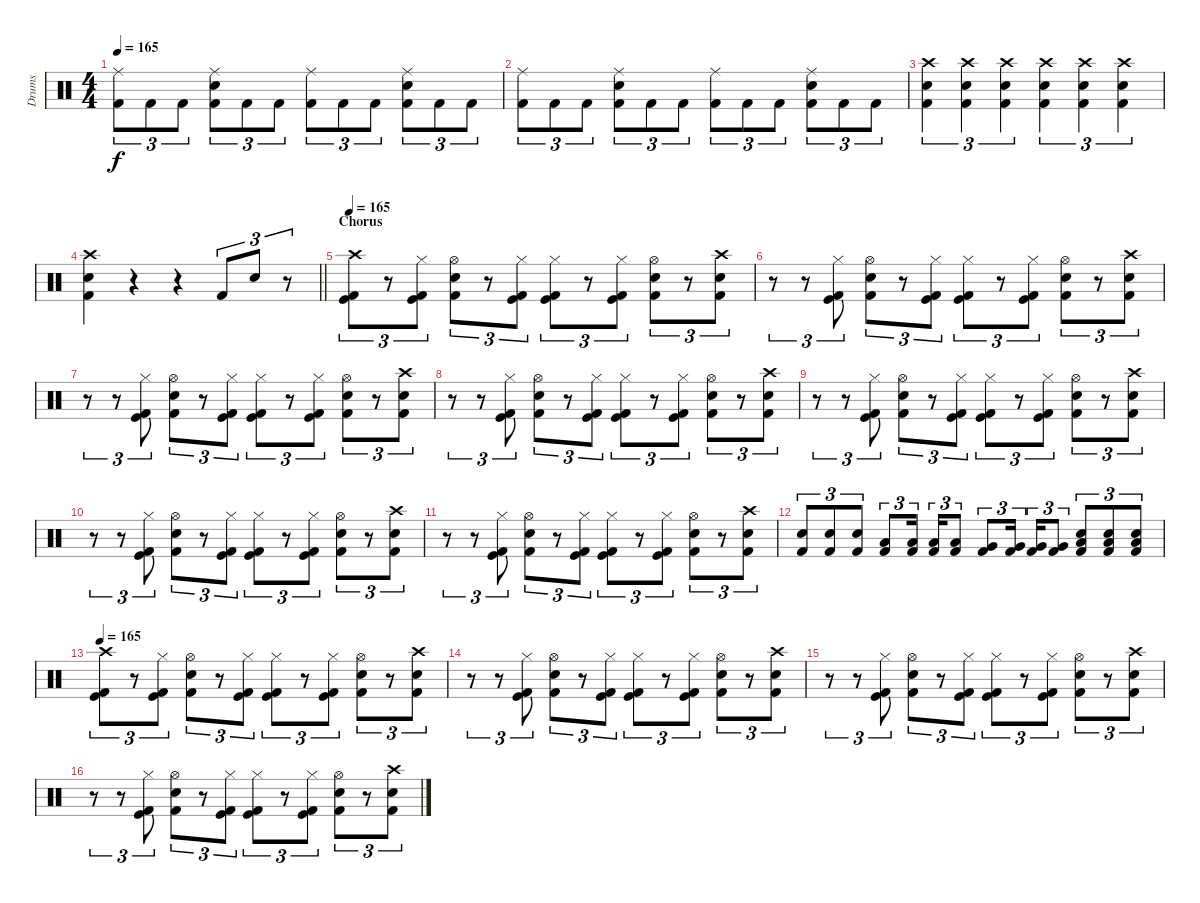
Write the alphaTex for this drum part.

\track ("Drums" "Drums") {instrument percussion}
\staff {score}
\articulation defaults
\ts (4 4)
\tempo 165
\clef neutral
\ks c
("Ride (middle)" "Kick (hit) 2").8{tu (3 2) dy f} "Kick (hit) 2".8{tu (3 2)} "Kick (hit) 2".8{tu (3 2)} ("Ride (middle)" "Snare (hit) 2" "Kick (hit) 2").8{tu (3 2)} "Kick (hit) 2".8{tu (3 2)} "Kick (hit) 2".8{tu (3 2)} ("Ride (middle)" "Kick (hit) 2").8{tu (3 2)} "Kick (hit) 2".8{tu (3 2)} "Kick (hit) 2".8{tu (3 2)} ("Ride (middle)" "Snare (hit) 2" "Kick (hit) 2").8{tu (3 2)} "Kick (hit) 2".8{tu (3 2)} "Kick (hit) 2".8{tu (3 2)} |
("Ride (middle)" "Kick (hit) 2").8{tu (3 2)} "Kick (hit) 2".8{tu (3 2)} "Kick (hit) 2".8{tu (3 2)} ("Ride (middle)" "Snare (hit) 2" "Kick (hit) 2").8{tu (3 2)} "Kick (hit) 2".8{tu (3 2)} "Kick (hit) 2".8{tu (3 2)} ("Ride (middle)" "Kick (hit) 2").8{tu (3 2)} "Kick (hit) 2".8{tu (3 2)} "Kick (hit) 2".8{tu (3 2)} ("Ride (middle)" "Snare (hit) 2" "Kick (hit) 2").8{tu (3 2)} "Kick (hit) 2".8{tu (3 2)} "Kick (hit) 2".8{tu (3 2)} |
("Snare (hit) 2" "Kick (hit) 2" "Crash high (hit)").4{tu (3 2)} ("Snare (hit) 2" "Kick (hit) 2" "Crash high (hit)").4{tu (3 2)} ("Snare (hit) 2" "Kick (hit) 2" "Crash high (hit)").4{tu (3 2)} ("Snare (hit) 2" "Kick (hit) 2" "Crash high (hit)").4{tu (3 2)} ("Snare (hit) 2" "Kick (hit) 2" "Crash high (hit)").4{tu (3 2)} ("Snare (hit) 2" "Kick (hit) 2" "Crash high (hit)").4{tu (3 2)} |
\barLineRight lightlight
("Snare (hit) 2" "Kick (hit) 2" "Crash high (hit)").4 r.4 r.4 "Kick (hit) 2".8{tu (3 2)} "Snare (hit) 2".8{tu (3 2)} r.8{tu (3 2)} |
\section ("" "Chorus")
\tempo 165
("Kick (hit)" "Kick (hit) 2" "Crash high (hit)").8{tu (3 2)} r.8{tu (3 2)} ("Kick (hit)" "Kick (hit) 2" "Hi-Hat (closed)").8{tu (3 2)} ("Snare (hit) 2" "Kick (hit) 2" "Hi-Hat (open)").8{tu (3 2)} r.8{tu (3 2)} ("Kick (hit)" "Kick (hit) 2" "Hi-Hat (closed)").8{tu (3 2)} ("Kick (hit)" "Kick (hit) 2" "Hi-Hat (closed)").8{tu (3 2)} r.8{tu (3 2)} ("Kick (hit)" "Kick (hit) 2" "Hi-Hat (closed)").8{tu (3 2)} ("Snare (hit) 2" "Kick (hit) 2" "Hi-Hat (open)").8{tu (3 2)} r.8{tu (3 2)} ("Snare (hit) 2" "Kick (hit) 2" "Crash high (hit)").8{tu (3 2)} |
r.8{tu (3 2)} r.8{tu (3 2)} ("Kick (hit)" "Kick (hit) 2" "Hi-Hat (closed)").8{tu (3 2)} ("Snare (hit) 2" "Kick (hit) 2" "Hi-Hat (open)").8{tu (3 2)} r.8{tu (3 2)} ("Kick (hit)" "Kick (hit) 2" "Hi-Hat (closed)").8{tu (3 2)} ("Kick (hit)" "Kick (hit) 2" "Hi-Hat (closed)").8{tu (3 2)} r.8{tu (3 2)} ("Kick (hit)" "Kick (hit) 2" "Hi-Hat (closed)").8{tu (3 2)} ("Snare (hit) 2" "Kick (hit) 2" "Hi-Hat (open)").8{tu (3 2)} r.8{tu (3 2)} ("Snare (hit) 2" "Kick (hit) 2" "Crash high (hit)").8{tu (3 2)} |
r.8{tu (3 2)} r.8{tu (3 2)} ("Kick (hit)" "Kick (hit) 2" "Hi-Hat (closed)").8{tu (3 2)} ("Snare (hit) 2" "Kick (hit) 2" "Hi-Hat (open)").8{tu (3 2)} r.8{tu (3 2)} ("Kick (hit)" "Kick (hit) 2" "Hi-Hat (closed)").8{tu (3 2)} ("Kick (hit)" "Kick (hit) 2" "Hi-Hat (closed)").8{tu (3 2)} r.8{tu (3 2)} ("Kick (hit)" "Kick (hit) 2" "Hi-Hat (closed)").8{tu (3 2)} ("Snare (hit) 2" "Kick (hit) 2" "Hi-Hat (open)").8{tu (3 2)} r.8{tu (3 2)} ("Snare (hit) 2" "Kick (hit) 2" "Crash high (hit)").8{tu (3 2)} |
r.8{tu (3 2)} r.8{tu (3 2)} ("Kick (hit)" "Kick (hit) 2" "Hi-Hat (closed)").8{tu (3 2)} ("Snare (hit) 2" "Kick (hit) 2" "Hi-Hat (open)").8{tu (3 2)} r.8{tu (3 2)} ("Kick (hit)" "Kick (hit) 2" "Hi-Hat (closed)").8{tu (3 2)} ("Kick (hit)" "Kick (hit) 2" "Hi-Hat (closed)").8{tu (3 2)} r.8{tu (3 2)} ("Kick (hit)" "Kick (hit) 2" "Hi-Hat (closed)").8{tu (3 2)} ("Snare (hit) 2" "Kick (hit) 2" "Hi-Hat (open)").8{tu (3 2)} r.8{tu (3 2)} ("Snare (hit) 2" "Kick (hit) 2" "Crash high (hit)").8{tu (3 2)} |
r.8{tu (3 2)} r.8{tu (3 2)} ("Kick (hit)" "Kick (hit) 2" "Hi-Hat (closed)").8{tu (3 2)} ("Snare (hit) 2" "Kick (hit) 2" "Hi-Hat (open)").8{tu (3 2)} r.8{tu (3 2)} ("Kick (hit)" "Kick (hit) 2" "Hi-Hat (closed)").8{tu (3 2)} ("Kick (hit)" "Kick (hit) 2" "Hi-Hat (closed)").8{tu (3 2)} r.8{tu (3 2)} ("Kick (hit)" "Kick (hit) 2" "Hi-Hat (closed)").8{tu (3 2)} ("Snare (hit) 2" "Kick (hit) 2" "Hi-Hat (open)").8{tu (3 2)} r.8{tu (3 2)} ("Snare (hit) 2" "Kick (hit) 2" "Crash high (hit)").8{tu (3 2)} |
r.8{tu (3 2)} r.8{tu (3 2)} ("Kick (hit)" "Kick (hit) 2" "Hi-Hat (closed)").8{tu (3 2)} ("Snare (hit) 2" "Kick (hit) 2" "Hi-Hat (open)").8{tu (3 2)} r.8{tu (3 2)} ("Kick (hit)" "Kick (hit) 2" "Hi-Hat (closed)").8{tu (3 2)} ("Kick (hit)" "Kick (hit) 2" "Hi-Hat (closed)").8{tu (3 2)} r.8{tu (3 2)} ("Kick (hit)" "Kick (hit) 2" "Hi-Hat (closed)").8{tu (3 2)} ("Snare (hit) 2" "Kick (hit) 2" "Hi-Hat (open)").8{tu (3 2)} r.8{tu (3 2)} ("Snare (hit) 2" "Kick (hit) 2" "Crash high (hit)").8{tu (3 2)} |
r.8{tu (3 2)} r.8{tu (3 2)} ("Kick (hit)" "Kick (hit) 2" "Hi-Hat (closed)").8{tu (3 2)} ("Snare (hit) 2" "Kick (hit) 2" "Hi-Hat (open)").8{tu (3 2)} r.8{tu (3 2)} ("Kick (hit)" "Kick (hit) 2" "Hi-Hat (closed)").8{tu (3 2)} ("Kick (hit)" "Kick (hit) 2" "Hi-Hat (closed)").8{tu (3 2)} r.8{tu (3 2)} ("Kick (hit)" "Kick (hit) 2" "Hi-Hat (closed)").8{tu (3 2)} ("Snare (hit) 2" "Kick (hit) 2" "Hi-Hat (open)").8{tu (3 2)} r.8{tu (3 2)} ("Snare (hit) 2" "Kick (hit) 2" "Crash high (hit)").8{tu (3 2)} |
("Snare (hit) 2" "Kick (hit) 2").8{tu (3 2)} ("Snare (hit) 2" "Kick (hit) 2").8{tu (3 2)} ("Snare (hit) 2" "Kick (hit) 2").8{tu (3 2)} ("Low Tom (hit)" "Kick (hit) 2").8{tu (3 2)} ("Low Tom (hit)" "Kick (hit) 2").16{tu (3 2) beam splitsecondary} ("Low Tom (hit)" "Kick (hit) 2").16{tu (3 2)} ("Low Tom (hit)" "Kick (hit) 2").8{tu (3 2)} ("Very Low Tom (hit)" "Kick (hit) 2").8{tu (3 2)} ("Very Low Tom (hit)" "Kick (hit) 2").16{tu (3 2) beam splitsecondary} ("Very Low Tom (hit)" "Kick (hit) 2").16{tu (3 2)} ("Very Low Tom (hit)" "Kick (hit) 2").8{tu (3 2)} ("Low Floor Tom (hit)" "Snare (hit) 2" "Kick (hit) 2").8{tu (3 2)} ("Low Floor Tom (hit)" "Snare (hit) 2" "Kick (hit) 2").8{tu (3 2)} ("Low Floor Tom (hit)" "Snare (hit) 2" "Kick (hit) 2").8{tu (3 2)} |
\tempo 165
("Kick (hit)" "Kick (hit) 2" "Crash high (hit)").8{tu (3 2)} r.8{tu (3 2)} ("Kick (hit)" "Kick (hit) 2" "Hi-Hat (closed)").8{tu (3 2)} ("Snare (hit) 2" "Kick (hit) 2" "Hi-Hat (open)").8{tu (3 2)} r.8{tu (3 2)} ("Kick (hit)" "Kick (hit) 2" "Hi-Hat (closed)").8{tu (3 2)} ("Kick (hit)" "Kick (hit) 2" "Hi-Hat (closed)").8{tu (3 2)} r.8{tu (3 2)} ("Kick (hit)" "Kick (hit) 2" "Hi-Hat (closed)").8{tu (3 2)} ("Snare (hit) 2" "Kick (hit) 2" "Hi-Hat (open)").8{tu (3 2)} r.8{tu (3 2)} ("Snare (hit) 2" "Kick (hit) 2" "Crash high (hit)").8{tu (3 2)} |
r.8{tu (3 2)} r.8{tu (3 2)} ("Kick (hit)" "Kick (hit) 2" "Hi-Hat (closed)").8{tu (3 2)} ("Snare (hit) 2" "Kick (hit) 2" "Hi-Hat (open)").8{tu (3 2)} r.8{tu (3 2)} ("Kick (hit)" "Kick (hit) 2" "Hi-Hat (closed)").8{tu (3 2)} ("Kick (hit)" "Kick (hit) 2" "Hi-Hat (closed)").8{tu (3 2)} r.8{tu (3 2)} ("Kick (hit)" "Kick (hit) 2" "Hi-Hat (closed)").8{tu (3 2)} ("Snare (hit) 2" "Kick (hit) 2" "Hi-Hat (open)").8{tu (3 2)} r.8{tu (3 2)} ("Snare (hit) 2" "Kick (hit) 2" "Crash high (hit)").8{tu (3 2)} |
r.8{tu (3 2)} r.8{tu (3 2)} ("Kick (hit)" "Kick (hit) 2" "Hi-Hat (closed)").8{tu (3 2)} ("Snare (hit) 2" "Kick (hit) 2" "Hi-Hat (open)").8{tu (3 2)} r.8{tu (3 2)} ("Kick (hit)" "Kick (hit) 2" "Hi-Hat (closed)").8{tu (3 2)} ("Kick (hit)" "Kick (hit) 2" "Hi-Hat (closed)").8{tu (3 2)} r.8{tu (3 2)} ("Kick (hit)" "Kick (hit) 2" "Hi-Hat (closed)").8{tu (3 2)} ("Snare (hit) 2" "Kick (hit) 2" "Hi-Hat (open)").8{tu (3 2)} r.8{tu (3 2)} ("Snare (hit) 2" "Kick (hit) 2" "Crash high (hit)").8{tu (3 2)} |
r.8{tu (3 2)} r.8{tu (3 2)} ("Kick (hit)" "Kick (hit) 2" "Hi-Hat (closed)").8{tu (3 2)} ("Snare (hit) 2" "Kick (hit) 2" "Hi-Hat (open)").8{tu (3 2)} r.8{tu (3 2)} ("Kick (hit)" "Kick (hit) 2" "Hi-Hat (closed)").8{tu (3 2)} ("Kick (hit)" "Kick (hit) 2" "Hi-Hat (closed)").8{tu (3 2)} r.8{tu (3 2)} ("Kick (hit)" "Kick (hit) 2" "Hi-Hat (closed)").8{tu (3 2)} ("Snare (hit) 2" "Kick (hit) 2" "Hi-Hat (open)").8{tu (3 2)} r.8{tu (3 2)} ("Snare (hit) 2" "Kick (hit) 2" "Crash high (hit)").8{tu (3 2)}
